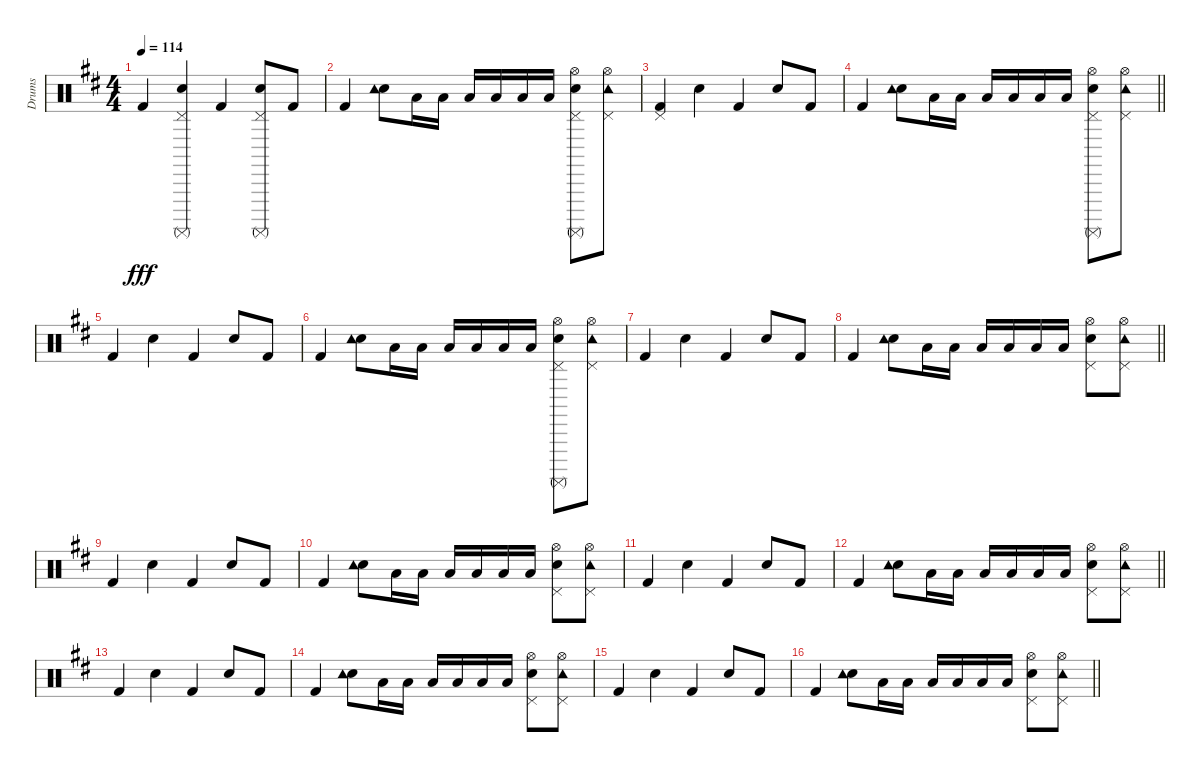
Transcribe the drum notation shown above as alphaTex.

\track ("Drums" "Drums") {instrument percussion}
\staff {score}
\articulation defaults
\ts (4 4)
\tempo 114
\clef neutral
\ks d "Kick (hit) 2".4{dy fff volume 7}
("Snare (hit) 2" "Surdo (mute)" "Pedal Hi-Hat (hit)").4 "Kick (hit) 2".4 ("Snare (hit) 2" "Surdo (mute)" "Pedal Hi-Hat (hit)").8 "Kick (hit) 2".8 |
"Kick (hit) 2".4 ("Snare (hit) 2" "Tambourine (hit)").8 "Low Tom (hit)".16 "Low Tom (hit)".16 "Low Tom (hit)".16 "Low Tom (hit)".16 "Low Tom (hit)".16 "Low Tom (hit)".16 ("Snare (hit) 2" "Pedal Hi-Hat (hit)" "Hi-Hat (open)" "Surdo (mute)").8 ("Hi-Hat (open)" "Pedal Hi-Hat (hit)" "Tambourine (hit)").8 |
("Kick (hit) 2" "Pedal Hi-Hat (hit)").4 "Snare (hit) 2".4 "Kick (hit) 2".4 "Snare (hit) 2".8 "Kick (hit) 2".8 |
\barLineRight lightlight "Kick (hit) 2".4
("Snare (hit) 2" "Tambourine (hit)").8 "Low Tom (hit)".16 "Low Tom (hit)".16 "Low Tom (hit)".16 "Low Tom (hit)".16 "Low Tom (hit)".16 "Low Tom (hit)".16 ("Snare (hit) 2" "Pedal Hi-Hat (hit)" "Hi-Hat (open)" "Surdo (mute)").8 ("Hi-Hat (open)" "Pedal Hi-Hat (hit)" "Tambourine (hit)").8 |
"Kick (hit) 2".4 "Snare (hit) 2".4 "Kick (hit) 2".4 "Snare (hit) 2".8 "Kick (hit) 2".8 |
"Kick (hit) 2".4 ("Snare (hit) 2" "Tambourine (hit)").8 "Low Tom (hit)".16 "Low Tom (hit)".16 "Low Tom (hit)".16 "Low Tom (hit)".16 "Low Tom (hit)".16 "Low Tom (hit)".16 ("Snare (hit) 2" "Pedal Hi-Hat (hit)" "Hi-Hat (open)" "Surdo (mute)").8 ("Hi-Hat (open)" "Pedal Hi-Hat (hit)" "Tambourine (hit)").8 |
"Kick (hit) 2".4 "Snare (hit) 2".4 "Kick (hit) 2".4 "Snare (hit) 2".8 "Kick (hit) 2".8 |
\barLineRight lightlight "Kick (hit) 2".4
("Snare (hit) 2" "Tambourine (hit)").8 "Low Tom (hit)".16 "Low Tom (hit)".16 "Low Tom (hit)".16 "Low Tom (hit)".16 "Low Tom (hit)".16 "Low Tom (hit)".16 ("Snare (hit) 2" "Pedal Hi-Hat (hit)" "Hi-Hat (open)").8 ("Hi-Hat (open)" "Pedal Hi-Hat (hit)" "Tambourine (hit)").8 |
"Kick (hit) 2".4 "Snare (hit) 2".4 "Kick (hit) 2".4 "Snare (hit) 2".8 "Kick (hit) 2".8 |
"Kick (hit) 2".4 ("Snare (hit) 2" "Tambourine (hit)").8 "Low Tom (hit)".16 "Low Tom (hit)".16 "Low Tom (hit)".16 "Low Tom (hit)".16 "Low Tom (hit)".16 "Low Tom (hit)".16 ("Snare (hit) 2" "Pedal Hi-Hat (hit)" "Hi-Hat (open)").8 ("Hi-Hat (open)" "Pedal Hi-Hat (hit)" "Tambourine (hit)").8 |
"Kick (hit) 2".4 "Snare (hit) 2".4 "Kick (hit) 2".4 "Snare (hit) 2".8 "Kick (hit) 2".8 |
\barLineRight lightlight "Kick (hit) 2".4
("Snare (hit) 2" "Tambourine (hit)").8 "Low Tom (hit)".16 "Low Tom (hit)".16 "Low Tom (hit)".16 "Low Tom (hit)".16 "Low Tom (hit)".16 "Low Tom (hit)".16 ("Snare (hit) 2" "Pedal Hi-Hat (hit)" "Hi-Hat (open)").8 ("Hi-Hat (open)" "Pedal Hi-Hat (hit)" "Tambourine (hit)").8 |
"Kick (hit) 2".4 "Snare (hit) 2".4 "Kick (hit) 2".4 "Snare (hit) 2".8 "Kick (hit) 2".8 |
"Kick (hit) 2".4 ("Snare (hit) 2" "Tambourine (hit)").8 "Low Tom (hit)".16 "Low Tom (hit)".16 "Low Tom (hit)".16 "Low Tom (hit)".16 "Low Tom (hit)".16 "Low Tom (hit)".16 ("Snare (hit) 2" "Pedal Hi-Hat (hit)" "Hi-Hat (open)").8 ("Hi-Hat (open)" "Pedal Hi-Hat (hit)" "Tambourine (hit)").8 |
"Kick (hit) 2".4 "Snare (hit) 2".4 "Kick (hit) 2".4 "Snare (hit) 2".8 "Kick (hit) 2".8 |
\barLineRight lightlight "Kick (hit) 2".4
("Snare (hit) 2" "Tambourine (hit)").8 "Low Tom (hit)".16 "Low Tom (hit)".16 "Low Tom (hit)".16 "Low Tom (hit)".16 "Low Tom (hit)".16 "Low Tom (hit)".16 ("Snare (hit) 2" "Pedal Hi-Hat (hit)" "Hi-Hat (open)").8 ("Hi-Hat (open)" "Pedal Hi-Hat (hit)" "Tambourine (hit)").8
